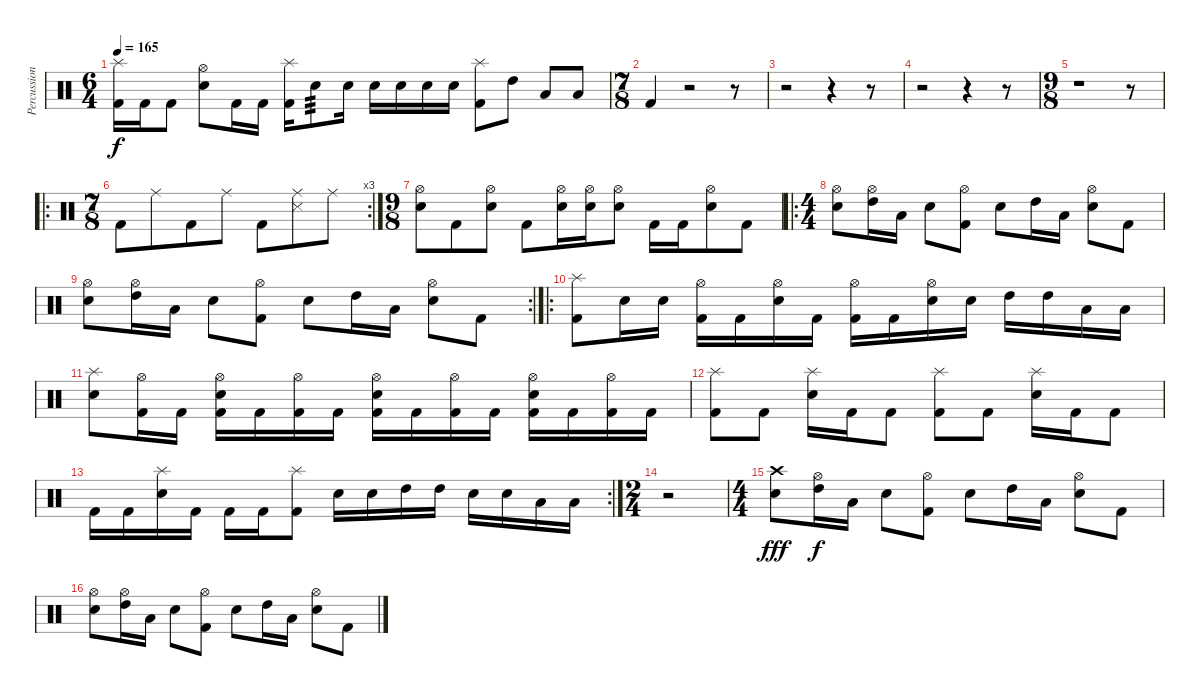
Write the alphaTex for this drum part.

\track ("Percussion" "Percussion") {instrument percussion}
\staff {score}
\articulation defaults
\ts (6 4)
\tempo 165
\clef neutral
\ks c
("Splash (hit)" "Kick (hit) 2").16{dy f} "Kick (hit) 2".16 "Kick (hit) 2".8 ("Hi-Hat (open)" "Electric Snare (hit)").8 "Kick (hit) 2".16 "Kick (hit) 2".16 ("Splash (hit)" "Kick (hit) 2").16 "Electric Snare (hit)".8{tp 3} "Electric Snare (hit)".16 "Electric Snare (hit)".16 "Electric Snare (hit)".16 "Electric Snare (hit)".16 "Electric Snare (hit)".16 ("Splash (hit)" "Kick (hit) 2").8 "High Tom (hit)".8 "Low Tom (hit)".8 "Low Floor Tom (hit)".8 |
\ts (7 8)
"Kick (hit) 2".4 r.2 r.8 |
r.2 r.4 r.8 |
r.2 r.4 r.8 |
\ts (9 8)
r.1 r.8 |
\ro
\rc 3
\ts (7 8)
"Kick (hit) 2".8 "Ride (middle)".8 "Kick (hit) 2".8 "Ride (middle)".8 "Kick (hit) 2".8 ("Ride (middle)" "Metronome (hit)").8 "Ride (middle)".8 |
\ts (9 8)
("Hi-Hat (open)" "Electric Snare (hit)").8 "Kick (hit) 2".8 ("Hi-Hat (open)" "Electric Snare (hit)").8 "Kick (hit) 2".8 ("Hi-Hat (open)" "Electric Snare (hit)").16 ("Hi-Hat (open)" "Electric Snare (hit)").16 ("Hi-Hat (open)" "Electric Snare (hit)").8 "Kick (hit) 2".16 "Kick (hit) 2".16 ("Hi-Hat (open)" "Electric Snare (hit)").8 "Kick (hit) 2".8 |
\ro
\ts (4 4)
("Hi-Hat (open)" "Electric Snare (hit)").8 ("Hi-Hat (open)" "High Tom (hit)").16 "Low Tom (hit)".16 "Electric Snare (hit)".8 ("Hi-Hat (open)" "Kick (hit) 2").8 "Electric Snare (hit)".8 "High Tom (hit)".16 "Low Tom (hit)".16 ("Hi-Hat (open)" "Electric Snare (hit)").8 "Kick (hit) 2".8 |
\rc 2
("Hi-Hat (open)" "Electric Snare (hit)").8 ("Hi-Hat (open)" "High Tom (hit)").16 "Low Tom (hit)".16 "Electric Snare (hit)".8 ("Hi-Hat (open)" "Kick (hit) 2").8 "Electric Snare (hit)".8 "High Tom (hit)".16 "Low Tom (hit)".16 ("Hi-Hat (open)" "Electric Snare (hit)").8 "Kick (hit) 2".8 |
\ro
("Splash (hit)" "Kick (hit) 2").8 "Electric Snare (hit)".16 "Electric Snare (hit)".16 ("Hi-Hat (open)" "Kick (hit) 2").16 "Kick (hit) 2".16 ("Hi-Hat (open)" "Electric Snare (hit)").16 "Kick (hit) 2".16 ("Hi-Hat (open)" "Kick (hit) 2").16 "Kick (hit) 2".16 ("Hi-Hat (open)" "Electric Snare (hit)").16 "Electric Snare (hit)".16 "High Tom (hit)".16 "High Tom (hit)".16 "Low Tom (hit)".16 "Low Tom (hit)".16 |
("Splash (hit)" "Electric Snare (hit)").8 ("Hi-Hat (open)" "Kick (hit) 2").16 "Kick (hit) 2".16 ("Hi-Hat (open)" "Electric Snare (hit)" "Kick (hit) 2").16 "Kick (hit) 2".16 ("Hi-Hat (open)" "Kick (hit) 2").16 "Kick (hit) 2".16 ("Hi-Hat (open)" "Electric Snare (hit)" "Kick (hit) 2").16 "Kick (hit) 2".16 ("Hi-Hat (open)" "Kick (hit) 2").16 "Kick (hit) 2".16 ("Hi-Hat (open)" "Electric Snare (hit)" "Kick (hit) 2").16 "Kick (hit) 2".16 ("Hi-Hat (open)" "Kick (hit) 2").16 "Kick (hit) 2".16 |
("Splash (hit)" "Kick (hit) 2").8 "Kick (hit) 2".8 ("Splash (hit)" "Electric Snare (hit)").16 "Kick (hit) 2".16 "Kick (hit) 2".8 ("Splash (hit)" "Kick (hit) 2").8 "Kick (hit) 2".8 ("Splash (hit)" "Electric Snare (hit)").16 "Kick (hit) 2".16 "Kick (hit) 2".8 |
\rc 2 "Kick (hit) 2".16 "Kick (hit) 2".16
("Splash (hit)" "Electric Snare (hit)").16 "Kick (hit) 2".16 "Kick (hit) 2".16 "Kick (hit) 2".16 ("Splash (hit)" "Kick (hit) 2").8 "Electric Snare (hit)".16 "Electric Snare (hit)".16 "High Tom (hit)".16 "High Tom (hit)".16 "Electric Snare (hit)".16 "Electric Snare (hit)".16 "Low Tom (hit)".16 "Low Tom (hit)".16 |
\ts (2 4)
r.2 |
\ts (4 4)
("Crash high (hit)" "Electric Snare (hit)").8{dy fff} ("Hi-Hat (open)" "High Tom (hit)").16{dy f} "Low Tom (hit)".16 "Electric Snare (hit)".8 ("Hi-Hat (open)" "Kick (hit) 2").8 "Electric Snare (hit)".8 "High Tom (hit)".16 "Low Tom (hit)".16 ("Hi-Hat (open)" "Electric Snare (hit)").8 "Kick (hit) 2".8 |
("Hi-Hat (open)" "Electric Snare (hit)").8 ("Hi-Hat (open)" "High Tom (hit)").16 "Low Tom (hit)".16 "Electric Snare (hit)".8 ("Hi-Hat (open)" "Kick (hit) 2").8 "Electric Snare (hit)".8 "High Tom (hit)".16 "Low Tom (hit)".16 ("Hi-Hat (open)" "Electric Snare (hit)").8 "Kick (hit) 2".8
